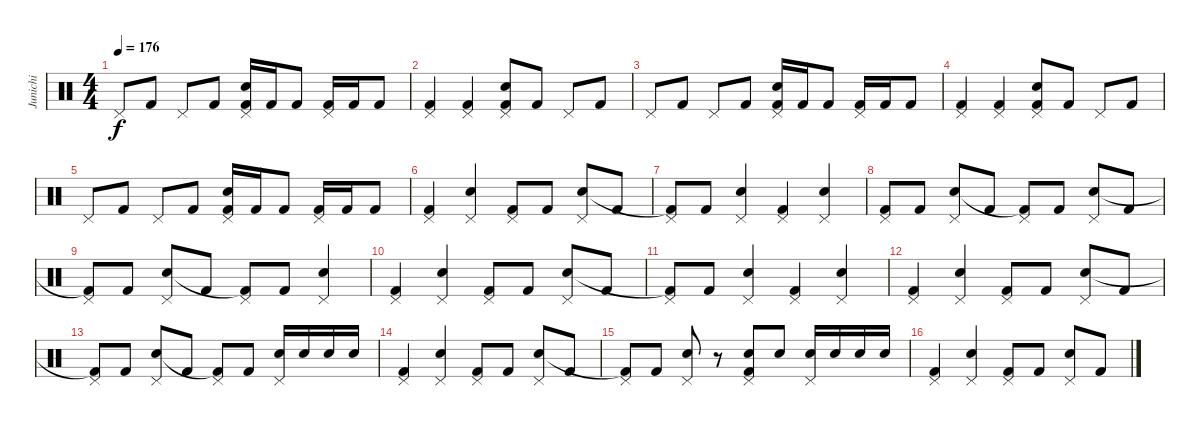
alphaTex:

\track ("Junichi" "Junichi") {instrument percussion}
\staff {score}
\articulation defaults
\ts (4 4)
\tempo 176
\clef neutral
\ks c "Pedal Hi-Hat (hit)".8{dy f} "Kick (hit) 2".8 "Pedal Hi-Hat (hit)".8 "Kick (hit) 2".8
("Pedal Hi-Hat (hit)" "Snare (hit) 2" "Kick (hit) 2").16 "Kick (hit) 2".16 "Kick (hit) 2".8 ("Pedal Hi-Hat (hit)" "Kick (hit) 2").16 "Kick (hit) 2".16 "Kick (hit) 2".8 |
("Pedal Hi-Hat (hit)" "Kick (hit) 2").4 ("Pedal Hi-Hat (hit)" "Kick (hit) 2").4 ("Pedal Hi-Hat (hit)" "Snare (hit) 2" "Kick (hit) 2").8 "Kick (hit) 2".8 "Pedal Hi-Hat (hit)".8 "Kick (hit) 2".8 |
"Pedal Hi-Hat (hit)".8 "Kick (hit) 2".8 "Pedal Hi-Hat (hit)".8 "Kick (hit) 2".8 ("Pedal Hi-Hat (hit)" "Snare (hit) 2" "Kick (hit) 2").16 "Kick (hit) 2".16 "Kick (hit) 2".8 ("Pedal Hi-Hat (hit)" "Kick (hit) 2").16 "Kick (hit) 2".16 "Kick (hit) 2".8 |
("Pedal Hi-Hat (hit)" "Kick (hit) 2").4 ("Pedal Hi-Hat (hit)" "Kick (hit) 2").4 ("Pedal Hi-Hat (hit)" "Snare (hit) 2" "Kick (hit) 2").8 "Kick (hit) 2".8 "Pedal Hi-Hat (hit)".8 "Kick (hit) 2".8 |
"Pedal Hi-Hat (hit)".8 "Kick (hit) 2".8 "Pedal Hi-Hat (hit)".8 "Kick (hit) 2".8 ("Pedal Hi-Hat (hit)" "Snare (hit) 2" "Kick (hit) 2").16 "Kick (hit) 2".16 "Kick (hit) 2".8 ("Pedal Hi-Hat (hit)" "Kick (hit) 2").16 "Kick (hit) 2".16 "Kick (hit) 2".8 |
("Pedal Hi-Hat (hit)" "Kick (hit) 2").4 ("Pedal Hi-Hat (hit)" "Snare (hit) 2").4 ("Pedal Hi-Hat (hit)" "Kick (hit) 2").8 "Kick (hit) 2".8 ("Pedal Hi-Hat (hit)" "Snare (hit) 2").8 "Kick (hit) 2".8 |
("Pedal Hi-Hat (hit)" "Kick (hit) 2"{t}).8 "Kick (hit) 2".8 ("Pedal Hi-Hat (hit)" "Snare (hit) 2").4 ("Pedal Hi-Hat (hit)" "Kick (hit) 2").4 ("Pedal Hi-Hat (hit)" "Snare (hit) 2").4 |
("Pedal Hi-Hat (hit)" "Kick (hit) 2").8 "Kick (hit) 2".8 ("Pedal Hi-Hat (hit)" "Snare (hit) 2").8 "Kick (hit) 2".8 ("Pedal Hi-Hat (hit)" "Kick (hit) 2"{t}).8 "Kick (hit) 2".8 ("Pedal Hi-Hat (hit)" "Snare (hit) 2").8 "Kick (hit) 2".8 |
("Pedal Hi-Hat (hit)" "Kick (hit) 2"{t}).8 "Kick (hit) 2".8 ("Pedal Hi-Hat (hit)" "Snare (hit) 2").8 "Kick (hit) 2".8 ("Pedal Hi-Hat (hit)" "Kick (hit) 2"{t}).8 "Kick (hit) 2".8 ("Pedal Hi-Hat (hit)" "Snare (hit) 2").4 |
("Pedal Hi-Hat (hit)" "Kick (hit) 2").4 ("Pedal Hi-Hat (hit)" "Snare (hit) 2").4 ("Pedal Hi-Hat (hit)" "Kick (hit) 2").8 "Kick (hit) 2".8 ("Pedal Hi-Hat (hit)" "Snare (hit) 2").8 "Kick (hit) 2".8 |
("Pedal Hi-Hat (hit)" "Kick (hit) 2"{t}).8 "Kick (hit) 2".8 ("Pedal Hi-Hat (hit)" "Snare (hit) 2").4 ("Pedal Hi-Hat (hit)" "Kick (hit) 2").4 ("Pedal Hi-Hat (hit)" "Snare (hit) 2").4 |
("Pedal Hi-Hat (hit)" "Kick (hit) 2").4 ("Pedal Hi-Hat (hit)" "Snare (hit) 2").4 ("Pedal Hi-Hat (hit)" "Kick (hit) 2").8 "Kick (hit) 2".8 ("Pedal Hi-Hat (hit)" "Snare (hit) 2").8 "Kick (hit) 2".8 |
("Pedal Hi-Hat (hit)" "Kick (hit) 2"{t}).8 "Kick (hit) 2".8 ("Pedal Hi-Hat (hit)" "Snare (hit) 2").8 "Kick (hit) 2".8 ("Pedal Hi-Hat (hit)" "Kick (hit) 2"{t}).8 "Kick (hit) 2".8 ("Pedal Hi-Hat (hit)" "Snare (hit) 2").16 "Snare (hit) 2".16 "Snare (hit) 2".16 "Snare (hit) 2".16 |
("Pedal Hi-Hat (hit)" "Kick (hit) 2").4 ("Pedal Hi-Hat (hit)" "Snare (hit) 2").4 ("Pedal Hi-Hat (hit)" "Kick (hit) 2").8 "Kick (hit) 2".8 ("Pedal Hi-Hat (hit)" "Snare (hit) 2").8 "Kick (hit) 2".8 |
("Pedal Hi-Hat (hit)" "Kick (hit) 2"{t}).8 "Kick (hit) 2".8 ("Pedal Hi-Hat (hit)" "Snare (hit) 2").8 r.8 ("Pedal Hi-Hat (hit)" "Snare (hit) 2" "Kick (hit) 2").8 "Snare (hit) 2".8 ("Pedal Hi-Hat (hit)" "Snare (hit) 2").16 "Snare (hit) 2".16 "Snare (hit) 2".16 "Snare (hit) 2".16 |
("Pedal Hi-Hat (hit)" "Kick (hit) 2").4 ("Pedal Hi-Hat (hit)" "Snare (hit) 2").4 ("Pedal Hi-Hat (hit)" "Kick (hit) 2").8 "Kick (hit) 2".8 ("Pedal Hi-Hat (hit)" "Snare (hit) 2").8 "Kick (hit) 2".8
